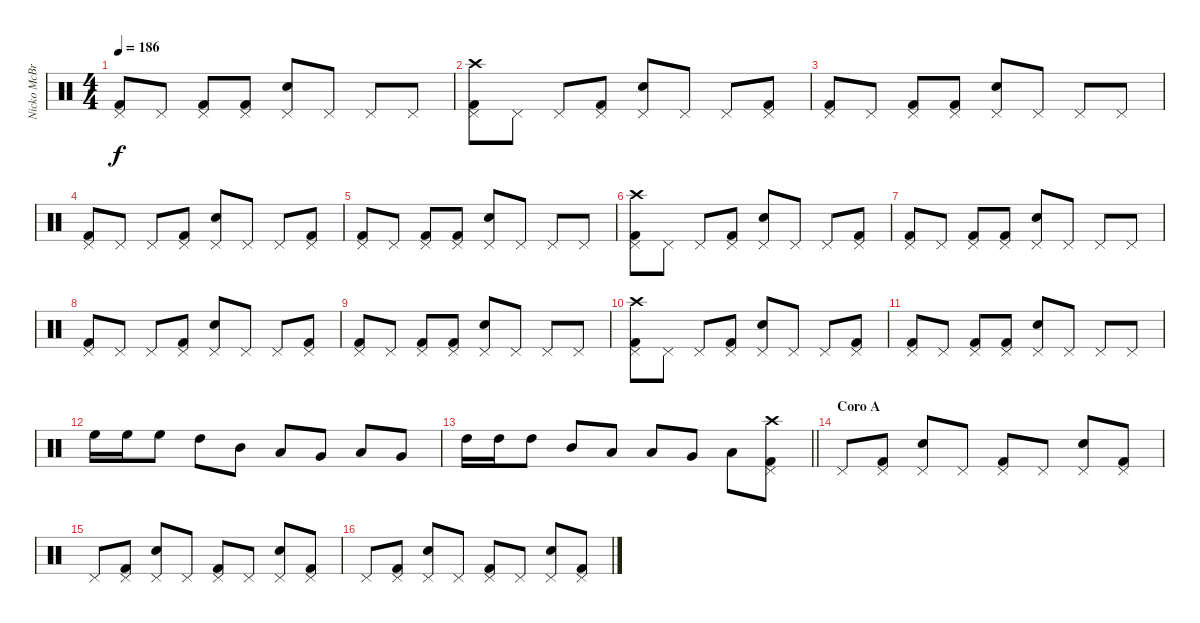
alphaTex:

\track ("Nicko McBrain" "Nicko McBr") {instrument percussion}
\staff {score}
\articulation defaults
\ts (4 4)
\tempo 186
\clef neutral
\ks c
("Kick (hit) 2" "Pedal Hi-Hat (hit)").8{dy f} "Pedal Hi-Hat (hit)".8 ("Kick (hit) 2" "Pedal Hi-Hat (hit)").8 ("Kick (hit) 2" "Pedal Hi-Hat (hit)").8 ("Snare (hit) 2" "Pedal Hi-Hat (hit)").8 "Pedal Hi-Hat (hit)".8 "Pedal Hi-Hat (hit)".8 "Pedal Hi-Hat (hit)".8 |
("Kick (hit) 2" "Pedal Hi-Hat (hit)" "Crash high (hit)").8 "Pedal Hi-Hat (hit)".8 "Pedal Hi-Hat (hit)".8 ("Kick (hit) 2" "Pedal Hi-Hat (hit)").8 ("Snare (hit) 2" "Pedal Hi-Hat (hit)").8 "Pedal Hi-Hat (hit)".8 "Pedal Hi-Hat (hit)".8 ("Kick (hit) 2" "Pedal Hi-Hat (hit)").8 |
("Kick (hit) 2" "Pedal Hi-Hat (hit)").8 "Pedal Hi-Hat (hit)".8 ("Kick (hit) 2" "Pedal Hi-Hat (hit)").8 ("Kick (hit) 2" "Pedal Hi-Hat (hit)").8 ("Snare (hit) 2" "Pedal Hi-Hat (hit)").8 "Pedal Hi-Hat (hit)".8 "Pedal Hi-Hat (hit)".8 "Pedal Hi-Hat (hit)".8 |
("Kick (hit) 2" "Pedal Hi-Hat (hit)").8 "Pedal Hi-Hat (hit)".8 "Pedal Hi-Hat (hit)".8 ("Kick (hit) 2" "Pedal Hi-Hat (hit)").8 ("Snare (hit) 2" "Pedal Hi-Hat (hit)").8 "Pedal Hi-Hat (hit)".8 "Pedal Hi-Hat (hit)".8 ("Kick (hit) 2" "Pedal Hi-Hat (hit)").8 |
("Kick (hit) 2" "Pedal Hi-Hat (hit)").8 "Pedal Hi-Hat (hit)".8 ("Kick (hit) 2" "Pedal Hi-Hat (hit)").8 ("Kick (hit) 2" "Pedal Hi-Hat (hit)").8 ("Snare (hit) 2" "Pedal Hi-Hat (hit)").8 "Pedal Hi-Hat (hit)".8 "Pedal Hi-Hat (hit)".8 "Pedal Hi-Hat (hit)".8 |
("Kick (hit) 2" "Pedal Hi-Hat (hit)" "Crash high (hit)").8 "Pedal Hi-Hat (hit)".8 "Pedal Hi-Hat (hit)".8 ("Kick (hit) 2" "Pedal Hi-Hat (hit)").8 ("Snare (hit) 2" "Pedal Hi-Hat (hit)").8 "Pedal Hi-Hat (hit)".8 "Pedal Hi-Hat (hit)".8 ("Kick (hit) 2" "Pedal Hi-Hat (hit)").8 |
("Kick (hit) 2" "Pedal Hi-Hat (hit)").8 "Pedal Hi-Hat (hit)".8 ("Kick (hit) 2" "Pedal Hi-Hat (hit)").8 ("Kick (hit) 2" "Pedal Hi-Hat (hit)").8 ("Snare (hit) 2" "Pedal Hi-Hat (hit)").8 "Pedal Hi-Hat (hit)".8 "Pedal Hi-Hat (hit)".8 "Pedal Hi-Hat (hit)".8 |
("Kick (hit) 2" "Pedal Hi-Hat (hit)").8 "Pedal Hi-Hat (hit)".8 "Pedal Hi-Hat (hit)".8 ("Kick (hit) 2" "Pedal Hi-Hat (hit)").8 ("Snare (hit) 2" "Pedal Hi-Hat (hit)").8 "Pedal Hi-Hat (hit)".8 "Pedal Hi-Hat (hit)".8 ("Kick (hit) 2" "Pedal Hi-Hat (hit)").8 |
("Kick (hit) 2" "Pedal Hi-Hat (hit)").8 "Pedal Hi-Hat (hit)".8 ("Kick (hit) 2" "Pedal Hi-Hat (hit)").8 ("Kick (hit) 2" "Pedal Hi-Hat (hit)").8 ("Snare (hit) 2" "Pedal Hi-Hat (hit)").8 "Pedal Hi-Hat (hit)".8 "Pedal Hi-Hat (hit)".8 "Pedal Hi-Hat (hit)".8 |
("Kick (hit) 2" "Pedal Hi-Hat (hit)" "Crash high (hit)").8 "Pedal Hi-Hat (hit)".8 "Pedal Hi-Hat (hit)".8 ("Kick (hit) 2" "Pedal Hi-Hat (hit)").8 ("Snare (hit) 2" "Pedal Hi-Hat (hit)").8 "Pedal Hi-Hat (hit)".8 "Pedal Hi-Hat (hit)".8 ("Kick (hit) 2" "Pedal Hi-Hat (hit)").8 |
("Kick (hit) 2" "Pedal Hi-Hat (hit)").8 "Pedal Hi-Hat (hit)".8 ("Kick (hit) 2" "Pedal Hi-Hat (hit)").8 ("Kick (hit) 2" "Pedal Hi-Hat (hit)").8 ("Snare (hit) 2" "Pedal Hi-Hat (hit)").8 "Pedal Hi-Hat (hit)".8 "Pedal Hi-Hat (hit)".8 "Pedal Hi-Hat (hit)".8 |
"High Floor Tom (hit)".16 "High Floor Tom (hit)".16 "High Floor Tom (hit)".8 "High Tom (hit)".8 "Mid Tom (hit)".8 "Low Tom (hit)".8 "Very Low Tom (hit)".8 "Low Floor Tom (hit)".8 "Very Low Tom (hit)".8 |
\barLineRight lightlight "High Tom (hit)".16 "High Tom (hit)".16 "High Tom (hit)".8 "Mid Tom (hit)".8 "Low Tom (hit)".8 "Low Tom (hit)".8 "Very Low Tom (hit)".8 "Low Floor Tom (hit)".8
("Kick (hit) 2" "Pedal Hi-Hat (hit)" "Crash high (hit)").8 |
\section ("" "Coro A")
"Pedal Hi-Hat (hit)".8 ("Kick (hit) 2" "Pedal Hi-Hat (hit)").8 ("Snare (hit) 2" "Pedal Hi-Hat (hit)").8 "Pedal Hi-Hat (hit)".8 ("Kick (hit) 2" "Pedal Hi-Hat (hit)").8 "Pedal Hi-Hat (hit)".8 ("Snare (hit) 2" "Pedal Hi-Hat (hit)").8 ("Kick (hit) 2" "Pedal Hi-Hat (hit)").8 |
"Pedal Hi-Hat (hit)".8 ("Kick (hit) 2" "Pedal Hi-Hat (hit)").8 ("Snare (hit) 2" "Pedal Hi-Hat (hit)").8 "Pedal Hi-Hat (hit)".8 ("Kick (hit) 2" "Pedal Hi-Hat (hit)").8 "Pedal Hi-Hat (hit)".8 ("Snare (hit) 2" "Pedal Hi-Hat (hit)").8 ("Kick (hit) 2" "Pedal Hi-Hat (hit)").8 |
"Pedal Hi-Hat (hit)".8 ("Kick (hit) 2" "Pedal Hi-Hat (hit)").8 ("Snare (hit) 2" "Pedal Hi-Hat (hit)").8 "Pedal Hi-Hat (hit)".8 ("Kick (hit) 2" "Pedal Hi-Hat (hit)").8 "Pedal Hi-Hat (hit)".8 ("Snare (hit) 2" "Pedal Hi-Hat (hit)").8 ("Kick (hit) 2" "Pedal Hi-Hat (hit)").8
